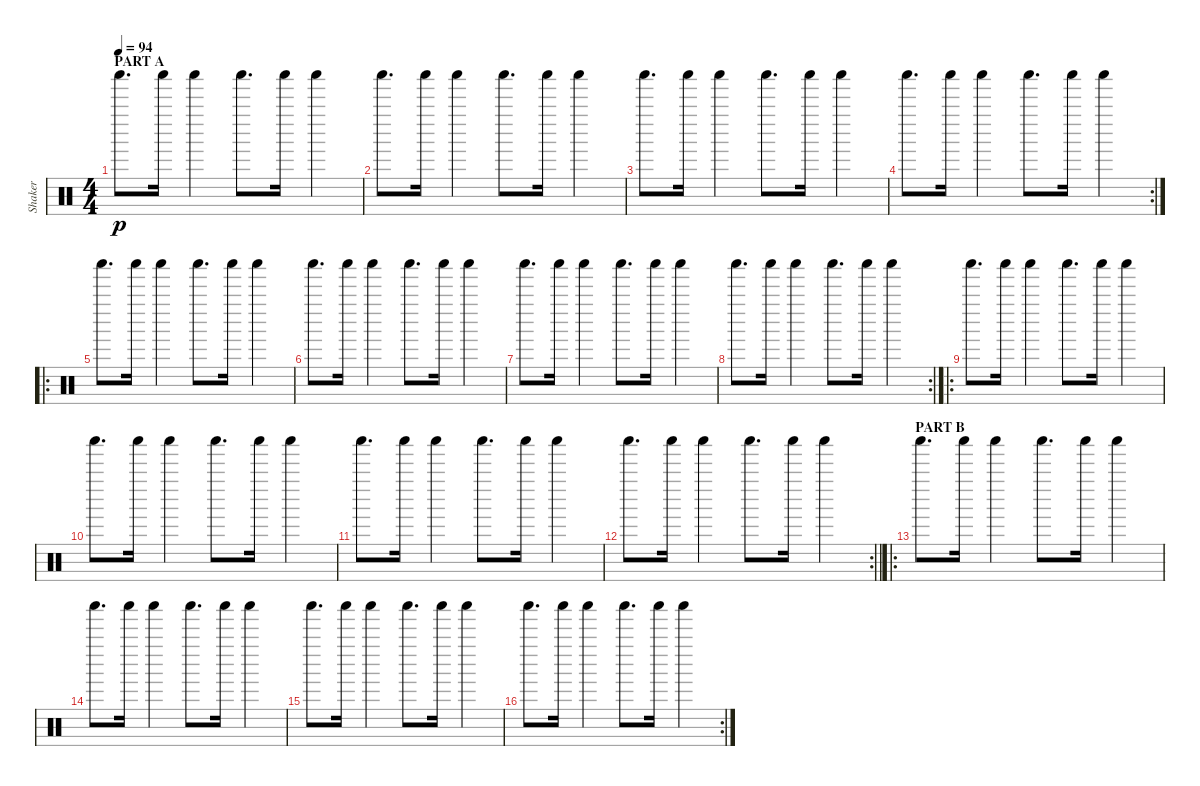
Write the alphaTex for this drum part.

\track ("Shaker" "Shaker") {instrument percussion}
\staff {score}
\articulation defaults
\ts (4 4)
\section ("" "PART A")
\tempo 94
\clef neutral
\ks c "Shaker (hit)".8{d dy p} "Shaker (hit)".16 "Shaker (hit)".4 "Shaker (hit)".8{d} "Shaker (hit)".16 "Shaker (hit)".4
|
"Shaker (hit)".8{d} "Shaker (hit)".16 "Shaker (hit)".4 "Shaker (hit)".8{d} "Shaker (hit)".16 "Shaker (hit)".4 |
"Shaker (hit)".8{d} "Shaker (hit)".16 "Shaker (hit)".4 "Shaker (hit)".8{d} "Shaker (hit)".16 "Shaker (hit)".4 |
\rc 2 "Shaker (hit)".8{d} "Shaker (hit)".16 "Shaker (hit)".4 "Shaker (hit)".8{d} "Shaker (hit)".16 "Shaker (hit)".4
|
\ro "Shaker (hit)".8{d} "Shaker (hit)".16 "Shaker (hit)".4 "Shaker (hit)".8{d} "Shaker (hit)".16 "Shaker (hit)".4
|
"Shaker (hit)".8{d} "Shaker (hit)".16 "Shaker (hit)".4 "Shaker (hit)".8{d} "Shaker (hit)".16 "Shaker (hit)".4 |
"Shaker (hit)".8{d} "Shaker (hit)".16 "Shaker (hit)".4 "Shaker (hit)".8{d} "Shaker (hit)".16 "Shaker (hit)".4 |
\rc 2 "Shaker (hit)".8{d} "Shaker (hit)".16 "Shaker (hit)".4 "Shaker (hit)".8{d} "Shaker (hit)".16 "Shaker (hit)".4
|
\ro "Shaker (hit)".8{d} "Shaker (hit)".16 "Shaker (hit)".4 "Shaker (hit)".8{d} "Shaker (hit)".16 "Shaker (hit)".4
|
"Shaker (hit)".8{d} "Shaker (hit)".16 "Shaker (hit)".4 "Shaker (hit)".8{d} "Shaker (hit)".16 "Shaker (hit)".4 |
"Shaker (hit)".8{d} "Shaker (hit)".16 "Shaker (hit)".4 "Shaker (hit)".8{d} "Shaker (hit)".16 "Shaker (hit)".4 |
\rc 2
\barLineRight lightlight "Shaker (hit)".8{d} "Shaker (hit)".16 "Shaker (hit)".4 "Shaker (hit)".8{d} "Shaker (hit)".16 "Shaker (hit)".4
|
\ro
\section ("" "PART B")
"Shaker (hit)".8{d} "Shaker (hit)".16 "Shaker (hit)".4 "Shaker (hit)".8{d} "Shaker (hit)".16 "Shaker (hit)".4 |
"Shaker (hit)".8{d} "Shaker (hit)".16 "Shaker (hit)".4 "Shaker (hit)".8{d} "Shaker (hit)".16 "Shaker (hit)".4 |
"Shaker (hit)".8{d} "Shaker (hit)".16 "Shaker (hit)".4 "Shaker (hit)".8{d} "Shaker (hit)".16 "Shaker (hit)".4 |
\rc 2 "Shaker (hit)".8{d} "Shaker (hit)".16 "Shaker (hit)".4 "Shaker (hit)".8{d} "Shaker (hit)".16 "Shaker (hit)".4
